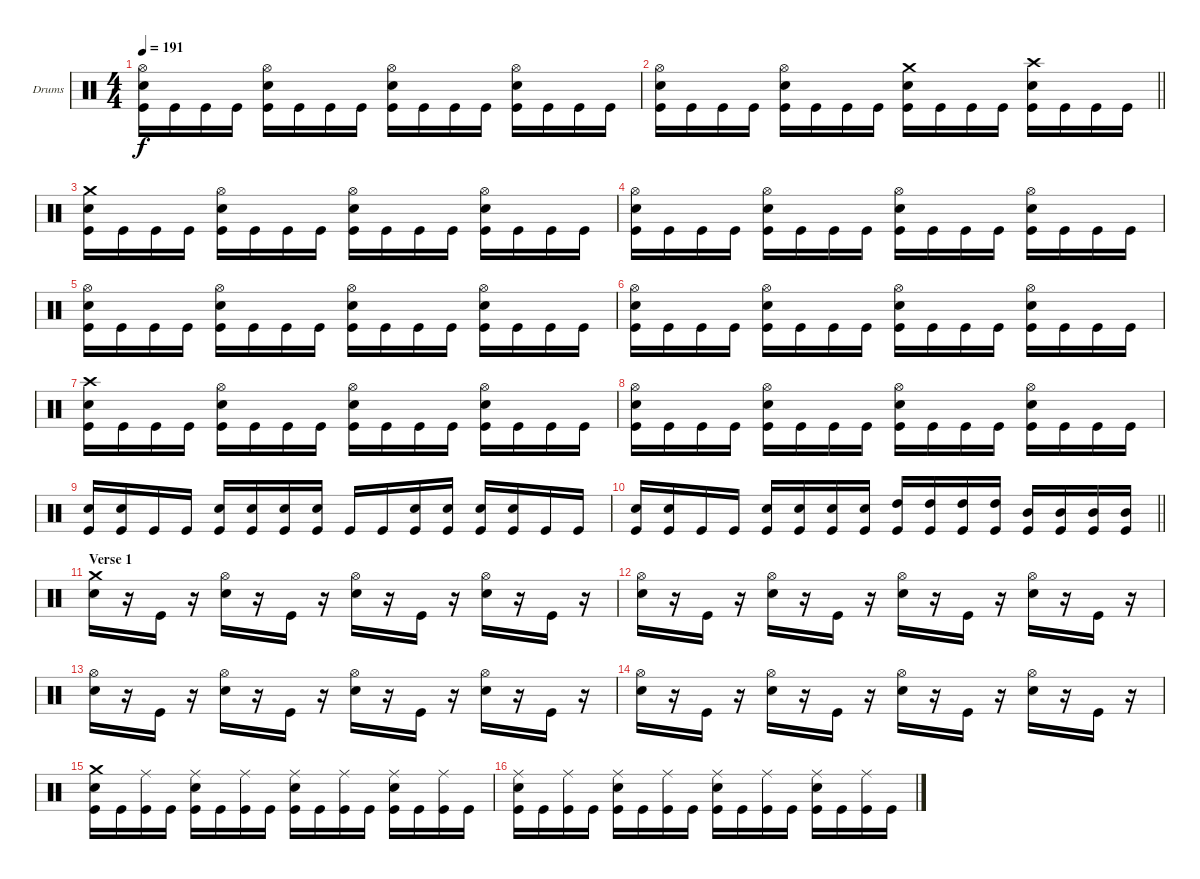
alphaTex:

\bracketExtendMode groupsimilarinstruments
\firstSystemTrackNameOrientation horizontal
\otherSystemsTrackNameOrientation horizontal
\track ("Drumkit" "Drums") {instrument percussion}
\staff {score}
\articulation defaults
\ts (4 4)
\tempo 191
\clef neutral
\ks c
("Hi-Hat (open)" "Snare (hit) 2" "Kick (hit)").16{dy f} "Kick (hit)".16 "Kick (hit)".16 "Kick (hit)".16 ("Hi-Hat (open)" "Snare (hit) 2" "Kick (hit)").16 "Kick (hit)".16 "Kick (hit)".16 "Kick (hit)".16 ("Hi-Hat (open)" "Snare (hit) 2" "Kick (hit)").16 "Kick (hit)".16 "Kick (hit)".16 "Kick (hit)".16 ("Hi-Hat (open)" "Snare (hit) 2" "Kick (hit)").16 "Kick (hit)".16 "Kick (hit)".16 "Kick (hit)".16 |
\barLineRight lightlight
("Hi-Hat (open)" "Snare (hit) 2" "Kick (hit)").16 "Kick (hit)".16 "Kick (hit)".16 "Kick (hit)".16 ("Hi-Hat (open)" "Snare (hit) 2" "Kick (hit)").16 "Kick (hit)".16 "Kick (hit)".16 "Kick (hit)".16 ("Crash medium (hit)" "Snare (hit) 2" "Kick (hit)").16 "Kick (hit)".16 "Kick (hit)".16 "Kick (hit)".16 ("Crash high (hit)" "Snare (hit) 2" "Kick (hit)").16 "Kick (hit)".16 "Kick (hit)".16 "Kick (hit)".16 |
\section ("" "")
("Crash medium (hit)" "Snare (hit) 2" "Kick (hit)").16 "Kick (hit)".16 "Kick (hit)".16 "Kick (hit)".16 ("Hi-Hat (open)" "Snare (hit) 2" "Kick (hit)").16 "Kick (hit)".16 "Kick (hit)".16 "Kick (hit)".16 ("Hi-Hat (open)" "Snare (hit) 2" "Kick (hit)").16 "Kick (hit)".16 "Kick (hit)".16 "Kick (hit)".16 ("Hi-Hat (open)" "Snare (hit) 2" "Kick (hit)").16 "Kick (hit)".16 "Kick (hit)".16 "Kick (hit)".16 |
("Hi-Hat (open)" "Snare (hit) 2" "Kick (hit)").16 "Kick (hit)".16 "Kick (hit)".16 "Kick (hit)".16 ("Hi-Hat (open)" "Snare (hit) 2" "Kick (hit)").16 "Kick (hit)".16 "Kick (hit)".16 "Kick (hit)".16 ("Hi-Hat (open)" "Snare (hit) 2" "Kick (hit)").16 "Kick (hit)".16 "Kick (hit)".16 "Kick (hit)".16 ("Hi-Hat (open)" "Snare (hit) 2" "Kick (hit)").16 "Kick (hit)".16 "Kick (hit)".16 "Kick (hit)".16 |
("Hi-Hat (open)" "Snare (hit) 2" "Kick (hit)").16 "Kick (hit)".16 "Kick (hit)".16 "Kick (hit)".16 ("Hi-Hat (open)" "Snare (hit) 2" "Kick (hit)").16 "Kick (hit)".16 "Kick (hit)".16 "Kick (hit)".16 ("Hi-Hat (open)" "Snare (hit) 2" "Kick (hit)").16 "Kick (hit)".16 "Kick (hit)".16 "Kick (hit)".16 ("Hi-Hat (open)" "Snare (hit) 2" "Kick (hit)").16 "Kick (hit)".16 "Kick (hit)".16 "Kick (hit)".16 |
("Hi-Hat (open)" "Snare (hit) 2" "Kick (hit)").16 "Kick (hit)".16 "Kick (hit)".16 "Kick (hit)".16 ("Hi-Hat (open)" "Snare (hit) 2" "Kick (hit)").16 "Kick (hit)".16 "Kick (hit)".16 "Kick (hit)".16 ("Hi-Hat (open)" "Snare (hit) 2" "Kick (hit)").16 "Kick (hit)".16 "Kick (hit)".16 "Kick (hit)".16 ("Hi-Hat (open)" "Snare (hit) 2" "Kick (hit)").16 "Kick (hit)".16 "Kick (hit)".16 "Kick (hit)".16 |
("Crash high (hit)" "Snare (hit) 2" "Kick (hit)").16 "Kick (hit)".16 "Kick (hit)".16 "Kick (hit)".16 ("Hi-Hat (open)" "Snare (hit) 2" "Kick (hit)").16 "Kick (hit)".16 "Kick (hit)".16 "Kick (hit)".16 ("Hi-Hat (open)" "Snare (hit) 2" "Kick (hit)").16 "Kick (hit)".16 "Kick (hit)".16 "Kick (hit)".16 ("Hi-Hat (open)" "Snare (hit) 2" "Kick (hit)").16 "Kick (hit)".16 "Kick (hit)".16 "Kick (hit)".16 |
("Hi-Hat (open)" "Snare (hit) 2" "Kick (hit)").16 "Kick (hit)".16 "Kick (hit)".16 "Kick (hit)".16 ("Hi-Hat (open)" "Snare (hit) 2" "Kick (hit)").16 "Kick (hit)".16 "Kick (hit)".16 "Kick (hit)".16 ("Hi-Hat (open)" "Snare (hit) 2" "Kick (hit)").16 "Kick (hit)".16 "Kick (hit)".16 "Kick (hit)".16 ("Hi-Hat (open)" "Snare (hit) 2" "Kick (hit)").16 "Kick (hit)".16 "Kick (hit)".16 "Kick (hit)".16 |
("Snare (hit) 2" "Kick (hit)").16 ("Snare (hit) 2" "Kick (hit)").16 "Kick (hit)".16 "Kick (hit)".16 ("Snare (hit) 2" "Kick (hit)").16 ("Snare (hit) 2" "Kick (hit)").16 ("Snare (hit) 2" "Kick (hit)").16 ("Snare (hit) 2" "Kick (hit)").16 "Kick (hit)".16 "Kick (hit)".16 ("Snare (hit) 2" "Kick (hit)").16 ("Snare (hit) 2" "Kick (hit)").16 ("Snare (hit) 2" "Kick (hit)").16 ("Snare (hit) 2" "Kick (hit)").16 "Kick (hit)".16 "Kick (hit)".16 |
\barLineRight lightlight
("Snare (hit) 2" "Kick (hit)").16 ("Snare (hit) 2" "Kick (hit)").16 "Kick (hit)".16 "Kick (hit)".16 ("Snare (hit) 2" "Kick (hit)").16 ("Snare (hit) 2" "Kick (hit)").16 ("Snare (hit) 2" "Kick (hit)").16 ("Snare (hit) 2" "Kick (hit)").16 ("High Tom (hit)" "Kick (hit)").16 ("High Tom (hit)" "Kick (hit)").16 ("High Tom (hit)" "Kick (hit)").16 ("High Tom (hit)" "Kick (hit)").16 ("Mid Tom (hit)" "Kick (hit)").16 ("Mid Tom (hit)" "Kick (hit)").16 ("Mid Tom (hit)" "Kick (hit)").16 ("Mid Tom (hit)" "Kick (hit)").16 |
\section ("" "Verse 1")
("Crash medium (hit)" "Snare (hit) 2").16 r.16 "Kick (hit)".16 r.16 ("Hi-Hat (open)" "Snare (hit) 2").16 r.16 "Kick (hit)".16 r.16 ("Hi-Hat (open)" "Snare (hit) 2").16 r.16 "Kick (hit)".16 r.16 ("Hi-Hat (open)" "Snare (hit) 2").16 r.16 "Kick (hit)".16 r.16 |
("Hi-Hat (open)" "Snare (hit) 2").16 r.16 "Kick (hit)".16 r.16 ("Hi-Hat (open)" "Snare (hit) 2").16 r.16 "Kick (hit)".16 r.16 ("Hi-Hat (open)" "Snare (hit) 2").16 r.16 "Kick (hit)".16 r.16 ("Hi-Hat (open)" "Snare (hit) 2").16 r.16 "Kick (hit)".16 r.16 |
("Hi-Hat (open)" "Snare (hit) 2").16 r.16 "Kick (hit)".16 r.16 ("Hi-Hat (open)" "Snare (hit) 2").16 r.16 "Kick (hit)".16 r.16 ("Hi-Hat (open)" "Snare (hit) 2").16 r.16 "Kick (hit)".16 r.16 ("Hi-Hat (open)" "Snare (hit) 2").16 r.16 "Kick (hit)".16 r.16 |
("Hi-Hat (open)" "Snare (hit) 2").16 r.16 "Kick (hit)".16 r.16 ("Hi-Hat (open)" "Snare (hit) 2").16 r.16 "Kick (hit)".16 r.16 ("Hi-Hat (open)" "Snare (hit) 2").16 r.16 "Kick (hit)".16 r.16 ("Hi-Hat (open)" "Snare (hit) 2").16 r.16 "Kick (hit)".16 r.16 |
("Crash medium (hit)" "Snare (hit) 2" "Kick (hit)").16 "Kick (hit)".16 ("Ride (middle)" "Kick (hit)").16 "Kick (hit)".16 ("Ride (middle)" "Snare (hit) 2" "Kick (hit)").16 "Kick (hit)".16 ("Ride (middle)" "Kick (hit)").16 "Kick (hit)".16 ("Ride (middle)" "Snare (hit) 2" "Kick (hit)").16 "Kick (hit)".16 ("Ride (middle)" "Kick (hit)").16 "Kick (hit)".16 ("Ride (middle)" "Snare (hit) 2" "Kick (hit)").16 "Kick (hit)".16 ("Ride (middle)" "Kick (hit)").16 "Kick (hit)".16 |
("Ride (middle)" "Snare (hit) 2" "Kick (hit)").16 "Kick (hit)".16 ("Ride (middle)" "Kick (hit)").16 "Kick (hit)".16 ("Ride (middle)" "Snare (hit) 2" "Kick (hit)").16 "Kick (hit)".16 ("Ride (middle)" "Kick (hit)").16 "Kick (hit)".16 ("Ride (middle)" "Snare (hit) 2" "Kick (hit)").16 "Kick (hit)".16 ("Ride (middle)" "Kick (hit)").16 "Kick (hit)".16 ("Ride (middle)" "Snare (hit) 2" "Kick (hit)").16 "Kick (hit)".16 ("Ride (middle)" "Kick (hit)").16 "Kick (hit)".16
